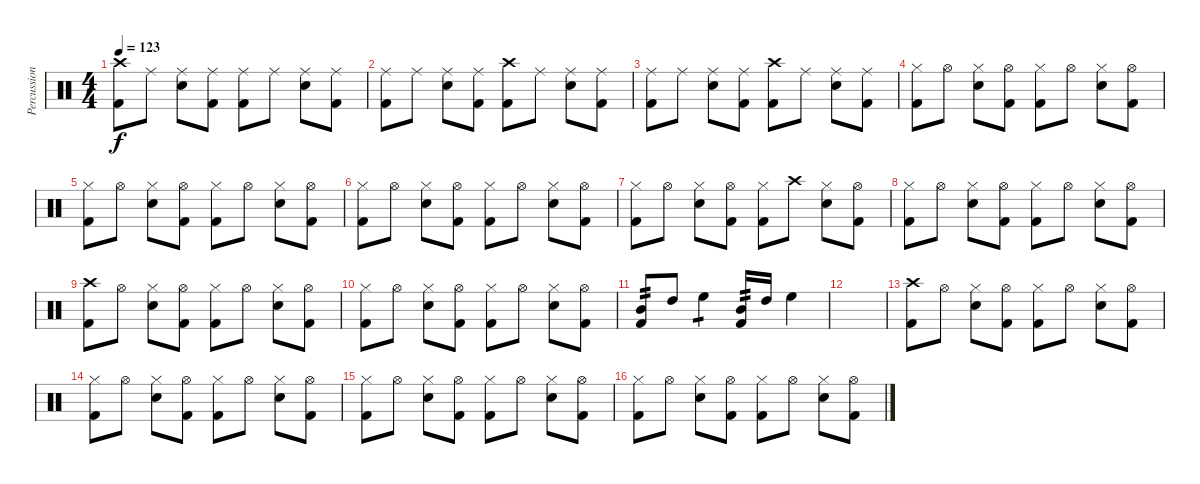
\track ("Percussion" "Percussion") {instrument percussion}
\staff {score}
\articulation defaults
\ts (4 4)
\tempo 123
\clef neutral
\ks c
("Crash high (hit)" "Kick (hit) 2").8{dy f} "Ride (middle)".8 ("Ride (middle)" "Electric Snare (hit)").8 ("Ride (middle)" "Kick (hit) 2").8 ("Ride (middle)" "Kick (hit) 2").8 "Ride (middle)".8 ("Ride (middle)" "Electric Snare (hit)").8 ("Ride (middle)" "Kick (hit) 2").8 |
("Ride (middle)" "Kick (hit) 2").8 "Ride (middle)".8 ("Ride (middle)" "Electric Snare (hit)").8 ("Ride (middle)" "Kick (hit) 2").8 ("Crash high (hit)" "Kick (hit) 2").8 "Ride (middle)".8 ("Ride (middle)" "Electric Snare (hit)").8 ("Ride (middle)" "Kick (hit) 2").8 |
("Ride (middle)" "Kick (hit) 2").8 "Ride (middle)".8 ("Ride (middle)" "Electric Snare (hit)").8 ("Ride (middle)" "Kick (hit) 2").8 ("Crash high (hit)" "Kick (hit) 2").8 "Ride (middle)".8 ("Ride (middle)" "Electric Snare (hit)").8 ("Ride (middle)" "Kick (hit) 2").8 |
("Hi-Hat (closed)" "Kick (hit) 2").8 "Hi-Hat (open)".8 ("Hi-Hat (closed)" "Electric Snare (hit)").8 ("Hi-Hat (open)" "Kick (hit) 2").8 ("Hi-Hat (closed)" "Kick (hit) 2").8 "Hi-Hat (open)".8 ("Hi-Hat (closed)" "Electric Snare (hit)").8 ("Hi-Hat (open)" "Kick (hit) 2").8 |
("Hi-Hat (closed)" "Kick (hit) 2").8 "Hi-Hat (open)".8 ("Hi-Hat (closed)" "Electric Snare (hit)").8 ("Hi-Hat (open)" "Kick (hit) 2").8 ("Hi-Hat (closed)" "Kick (hit) 2").8 "Hi-Hat (open)".8 ("Hi-Hat (closed)" "Electric Snare (hit)").8 ("Hi-Hat (open)" "Kick (hit) 2").8 |
("Hi-Hat (closed)" "Kick (hit) 2").8 "Hi-Hat (open)".8 ("Hi-Hat (closed)" "Electric Snare (hit)").8 ("Hi-Hat (open)" "Kick (hit) 2").8 ("Hi-Hat (closed)" "Kick (hit) 2").8 "Hi-Hat (open)".8 ("Hi-Hat (closed)" "Electric Snare (hit)").8 ("Hi-Hat (open)" "Kick (hit) 2").8 |
("Hi-Hat (closed)" "Kick (hit) 2").8 "Hi-Hat (open)".8 ("Hi-Hat (closed)" "Electric Snare (hit)").8 ("Hi-Hat (open)" "Kick (hit) 2").8 ("Hi-Hat (closed)" "Kick (hit) 2").8 "Crash high (hit)".8 ("Hi-Hat (closed)" "Electric Snare (hit)").8 ("Hi-Hat (open)" "Kick (hit) 2").8 |
("Hi-Hat (closed)" "Kick (hit) 2").8 "Hi-Hat (open)".8 ("Hi-Hat (closed)" "Electric Snare (hit)").8 ("Hi-Hat (open)" "Kick (hit) 2").8 ("Hi-Hat (closed)" "Kick (hit) 2").8 "Hi-Hat (open)".8 ("Hi-Hat (closed)" "Electric Snare (hit)").8 ("Hi-Hat (open)" "Kick (hit) 2").8 |
("Crash high (hit)" "Kick (hit) 2").8 "Hi-Hat (open)".8 ("Hi-Hat (closed)" "Electric Snare (hit)").8 ("Hi-Hat (open)" "Kick (hit) 2").8 ("Hi-Hat (closed)" "Kick (hit) 2").8 "Hi-Hat (open)".8 ("Hi-Hat (closed)" "Electric Snare (hit)").8 ("Hi-Hat (open)" "Kick (hit) 2").8 |
("Hi-Hat (closed)" "Kick (hit) 2").8 "Hi-Hat (open)".8 ("Hi-Hat (closed)" "Electric Snare (hit)").8 ("Hi-Hat (open)" "Kick (hit) 2").8 ("Hi-Hat (closed)" "Kick (hit) 2").8 "Hi-Hat (open)".8 ("Hi-Hat (closed)" "Electric Snare (hit)").8 ("Hi-Hat (open)" "Kick (hit) 2").8 |
("Mid Tom (hit)" "Kick (hit) 2").8{tp 2} "High Tom (hit)".8 "High Floor Tom (hit)".4{tp 1} ("Mid Tom (hit)" "Kick (hit) 2").16{tp 2} "High Tom (hit)".16 "High Floor Tom (hit)".4 |
|
("Crash high (hit)" "Kick (hit) 2").8 "Hi-Hat (open)".8 ("Hi-Hat (closed)" "Electric Snare (hit)").8 ("Hi-Hat (open)" "Kick (hit) 2").8 ("Hi-Hat (closed)" "Kick (hit) 2").8 "Hi-Hat (open)".8 ("Hi-Hat (closed)" "Electric Snare (hit)").8 ("Hi-Hat (open)" "Kick (hit) 2").8 |
("Hi-Hat (closed)" "Kick (hit) 2").8 "Hi-Hat (open)".8 ("Hi-Hat (closed)" "Electric Snare (hit)").8 ("Hi-Hat (open)" "Kick (hit) 2").8 ("Hi-Hat (closed)" "Kick (hit) 2").8 "Hi-Hat (open)".8 ("Hi-Hat (closed)" "Electric Snare (hit)").8 ("Hi-Hat (open)" "Kick (hit) 2").8 |
("Hi-Hat (closed)" "Kick (hit) 2").8 "Hi-Hat (open)".8 ("Hi-Hat (closed)" "Electric Snare (hit)").8 ("Hi-Hat (open)" "Kick (hit) 2").8 ("Hi-Hat (closed)" "Kick (hit) 2").8 "Hi-Hat (open)".8 ("Hi-Hat (closed)" "Electric Snare (hit)").8 ("Hi-Hat (open)" "Kick (hit) 2").8 |
("Hi-Hat (closed)" "Kick (hit) 2").8 "Hi-Hat (open)".8 ("Hi-Hat (closed)" "Electric Snare (hit)").8 ("Hi-Hat (open)" "Kick (hit) 2").8 ("Hi-Hat (closed)" "Kick (hit) 2").8 "Hi-Hat (open)".8 ("Hi-Hat (closed)" "Electric Snare (hit)").8 ("Hi-Hat (open)" "Kick (hit) 2").8
